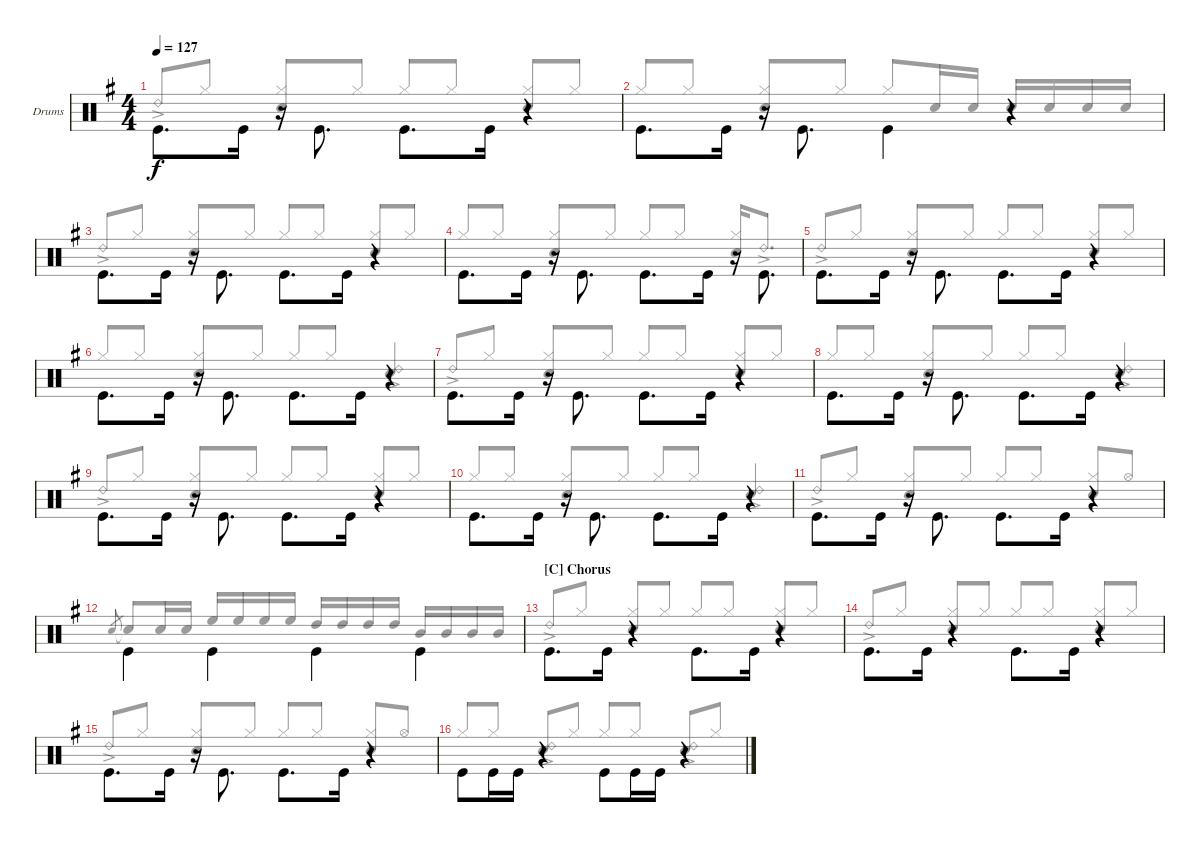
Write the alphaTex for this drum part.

\defaultSystemsLayout 4
\bracketExtendMode groupsimilarinstruments
\firstSystemTrackNameOrientation horizontal
\otherSystemsTrackNameOrientation horizontal
\track ("Drums" "Drums") {instrument percussion}
\staff {score}
\articulation defaults
\voice
\ts (4 4)
\tempo 127
\clef neutral
\scale
1.02648
\ks g "Kick (hit)".8{d dy f beam invert} "Kick (hit)".16
r.16{beam invert} "Kick (hit)".8{d beam invert} "Kick (hit)".8{d beam invert} "Kick (hit)".16 r.4 |
\scale
0.973518 "Kick (hit)".8{d beam invert} "Kick (hit)".16 r.16{beam invert} "Kick (hit)".8{d beam invert} "Kick (hit)".4{beam invert} r.4 |
\scale
1.02648 "Kick (hit)".8{d beam invert} "Kick (hit)".16 r.16{beam invert} "Kick (hit)".8{d beam invert} "Kick (hit)".8{d beam invert} "Kick (hit)".16 r.4 |
\scale
0.973518 "Kick (hit)".8{d beam invert} "Kick (hit)".16 r.16{beam invert} "Kick (hit)".8{d beam invert} "Kick (hit)".8{d beam invert} "Kick (hit)".16 r.16{beam invert} "Kick (hit)".8{d beam invert} |
\scale
1.02648 "Kick (hit)".8{d beam invert} "Kick (hit)".16 r.16{beam invert} "Kick (hit)".8{d beam invert} "Kick (hit)".8{d beam invert} "Kick (hit)".16 r.4 |
\scale
0.973518 "Kick (hit)".8{d beam invert} "Kick (hit)".16 r.16{beam invert} "Kick (hit)".8{d beam invert} "Kick (hit)".8{d beam invert} "Kick (hit)".16 r.4 |
\scale
1.02648 "Kick (hit)".8{d beam invert} "Kick (hit)".16 r.16{beam invert} "Kick (hit)".8{d beam invert} "Kick (hit)".8{d beam invert} "Kick (hit)".16 r.4 |
\scale
0.973518 "Kick (hit)".8{d beam invert} "Kick (hit)".16 r.16{beam invert} "Kick (hit)".8{d beam invert} "Kick (hit)".8{d beam invert} "Kick (hit)".16 r.4 |
\scale
1.02648 "Kick (hit)".8{d beam invert} "Kick (hit)".16 r.16{beam invert} "Kick (hit)".8{d beam invert} "Kick (hit)".8{d beam invert} "Kick (hit)".16 r.4 |
\scale
0.973518 "Kick (hit)".8{d beam invert} "Kick (hit)".16 r.16{beam invert} "Kick (hit)".8{d beam invert} "Kick (hit)".8{d beam invert} "Kick (hit)".16 r.4 |
\scale
1.02648 "Kick (hit)".8{d beam invert} "Kick (hit)".16 r.16{beam invert} "Kick (hit)".8{d beam invert} "Kick (hit)".8{d beam invert} "Kick (hit)".16 r.4 |
\scale
0.973518 "Kick (hit)".4{beam invert} "Kick (hit)".4{beam invert} "Kick (hit)".4{beam invert} "Kick (hit)".4{beam invert} |
\section ("C" "Chorus")
\scale
1.02648 "Kick (hit)".8{d beam invert} "Kick (hit)".16 r.4 "Kick (hit)".8{d beam invert} "Kick (hit)".16 r.4 |
\scale
0.973518 "Kick (hit)".8{d beam invert} "Kick (hit)".16 r.4 "Kick (hit)".8{d beam invert} "Kick (hit)".16 r.4 |
\scale
1.02648 "Kick (hit)".8{d beam invert} "Kick (hit)".16 r.16{beam invert} "Kick (hit)".8{d beam invert} "Kick (hit)".8{d beam invert} "Kick (hit)".16 r.4 |
\scale
0.973518 "Kick (hit)".8{beam invert} "Kick (hit)".16 "Kick (hit)".16 r.4{beam invert} "Kick (hit)".8{beam invert} "Kick (hit)".16 "Kick (hit)".16 r.4{beam invert}
\voice
\clef neutral
\ottava regular
\simile none
\scale
1.02648
\ks g "Ride (bell) 2"{ac}.8{dy f beam invert} "Hi-Hat (closed)".8
("Hi-Hat (closed)" "Snare (hit) 2").8{beam invert} "Hi-Hat (closed)".8 "Hi-Hat (closed)".8{beam invert} "Hi-Hat (closed)".8 ("Hi-Hat (closed)" "Snare (hit) 2").8{beam invert} "Hi-Hat (closed)".8 |
\scale
0.973518 "Hi-Hat (closed)".8{beam invert} "Hi-Hat (closed)".8 ("Hi-Hat (closed)" "Snare (hit) 2").8{beam invert} "Hi-Hat (closed)".8 "Hi-Hat (closed)".8{beam invert} "Snare (hit) 2".16 "Snare (hit) 2".16 "Snare (hit) 2".16{beam invert} "Snare (hit) 2".16 "Snare (hit) 2".16 "Snare (hit) 2".16 |
\scale
1.02648 "Ride (bell) 2"{ac}.8{beam invert} "Hi-Hat (closed)".8 ("Hi-Hat (closed)" "Snare (hit) 2").8{beam invert} "Hi-Hat (closed)".8 "Hi-Hat (closed)".8{beam invert} "Hi-Hat (closed)".8 ("Hi-Hat (closed)" "Snare (hit) 2").8{beam invert} "Hi-Hat (closed)".8 |
\scale
0.973518 "Hi-Hat (closed)".8{beam invert} "Hi-Hat (closed)".8 ("Hi-Hat (closed)" "Snare (hit) 2").8{beam invert} "Hi-Hat (closed)".8 "Hi-Hat (closed)".8{beam invert} "Hi-Hat (closed)".8 ("Hi-Hat (closed)" "Snare (hit) 2").16{beam invert} "Ride (bell) 2"{ac}.8{d} |
\scale
1.02648 "Ride (bell) 2"{ac}.8{beam invert} "Hi-Hat (closed)".8 ("Hi-Hat (closed)" "Snare (hit) 2").8{beam invert} "Hi-Hat (closed)".8 "Hi-Hat (closed)".8{beam invert} "Hi-Hat (closed)".8 ("Hi-Hat (closed)" "Snare (hit) 2").8{beam invert} "Hi-Hat (closed)".8 |
\scale
0.973518 "Hi-Hat (closed)".8{beam invert} "Hi-Hat (closed)".8 ("Hi-Hat (closed)" "Snare (hit) 2").8{beam invert} "Hi-Hat (closed)".8 "Hi-Hat (closed)".8{beam invert} "Hi-Hat (closed)".8 ("Ride (bell) 2"{ac} "Snare (hit) 2").4{beam invert} |
\scale
1.02648 "Ride (bell) 2"{ac}.8{beam invert} "Hi-Hat (closed)".8 ("Hi-Hat (closed)" "Snare (hit) 2").8{beam invert} "Hi-Hat (closed)".8 "Hi-Hat (closed)".8{beam invert} "Hi-Hat (closed)".8 ("Hi-Hat (closed)" "Snare (hit) 2").8{beam invert} "Hi-Hat (closed)".8 |
\scale
0.973518 "Hi-Hat (closed)".8{beam invert} "Hi-Hat (closed)".8 ("Hi-Hat (closed)" "Snare (hit) 2").8{beam invert} "Hi-Hat (closed)".8 "Hi-Hat (closed)".8{beam invert} "Hi-Hat (closed)".8 ("Ride (bell) 2"{ac} "Snare (hit) 2").4{beam invert} |
\scale
1.02648 "Ride (bell) 2"{ac}.8{beam invert} "Hi-Hat (closed)".8 ("Hi-Hat (closed)" "Snare (hit) 2").8{beam invert} "Hi-Hat (closed)".8 "Hi-Hat (closed)".8{beam invert} "Hi-Hat (closed)".8 ("Hi-Hat (closed)" "Snare (hit) 2").8{beam invert} "Hi-Hat (closed)".8 |
\scale
0.973518 "Hi-Hat (closed)".8{beam invert} "Hi-Hat (closed)".8 ("Hi-Hat (closed)" "Snare (hit) 2").8{beam invert} "Hi-Hat (closed)".8 "Hi-Hat (closed)".8{beam invert} "Hi-Hat (closed)".8 ("Ride (bell) 2"{ac} "Snare (hit) 2").4{beam invert} |
\scale
1.02648 "Ride (bell) 2"{ac}.8{beam invert} "Hi-Hat (closed)".8 ("Hi-Hat (closed)" "Snare (hit) 2").8{beam invert} "Hi-Hat (closed)".8 "Hi-Hat (closed)".8{beam invert} "Hi-Hat (closed)".8 ("Hi-Hat (closed)" "Snare (hit) 2").8{beam invert} "Hi-Hat (open)".8 |
\scale
0.973518 "Snare (hit) 2".8{gr beam invert} "Snare (hit) 2"{t}.8{beam invert} "Snare (hit) 2".16 "Snare (hit) 2".16 "High Floor Tom (hit)".16{beam invert} "High Floor Tom (hit)".16 "High Floor Tom (hit)".16 "High Floor Tom (hit)".16 "High Tom (hit)".16{beam invert} "High Tom (hit)".16 "High Tom (hit)".16 "High Tom (hit)".16 "Mid Tom (hit)".16{beam invert} "Mid Tom (hit)".16 "Mid Tom (hit)".16 "Mid Tom (hit)".16 |
\scale
1.02648 "Ride (bell) 2"{ac}.8{beam invert} "Hi-Hat (closed)".8 ("Hi-Hat (closed)" "Snare (hit) 2").8{beam invert} "Hi-Hat (closed)".8 "Hi-Hat (closed)".8{beam invert} "Hi-Hat (closed)".8 ("Hi-Hat (closed)" "Snare (hit) 2").8{beam invert} "Hi-Hat (closed)".8 |
\scale
0.973518 "Ride (bell) 2"{ac}.8{beam invert} "Hi-Hat (closed)".8 ("Hi-Hat (closed)" "Snare (hit) 2").8{beam invert} "Hi-Hat (closed)".8 "Hi-Hat (closed)".8{beam invert} "Hi-Hat (closed)".8 ("Hi-Hat (closed)" "Snare (hit) 2").8{beam invert} "Hi-Hat (closed)".8 |
\scale
1.02648 "Ride (bell) 2"{ac}.8{beam invert} "Hi-Hat (closed)".8 ("Hi-Hat (closed)" "Snare (hit) 2").8{beam invert} "Hi-Hat (closed)".8 "Hi-Hat (closed)".8{beam invert} "Hi-Hat (closed)".8 ("Hi-Hat (closed)" "Snare (hit) 2").8{beam invert} "Hi-Hat (open)".8 |
\scale
0.973518 "Hi-Hat (closed)".8{beam invert} "Hi-Hat (closed)".8 ("Snare (hit) 2" "Ride (bell) 2"{ac}).8{beam invert} "Hi-Hat (closed)".8 "Hi-Hat (closed)".8{beam invert} "Hi-Hat (closed)".8 ("Snare (hit) 2" "Ride (bell) 2"{ac}).8{beam invert} "Hi-Hat (closed)".8
